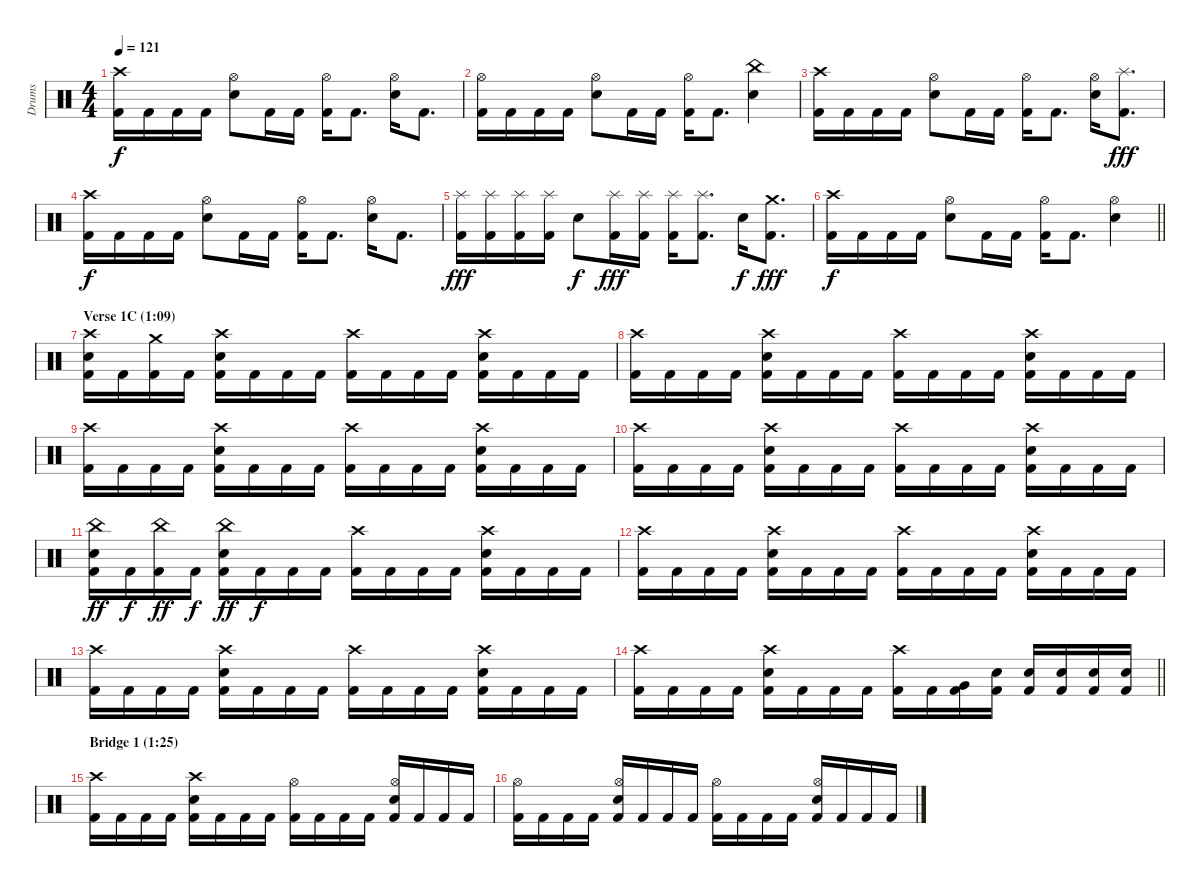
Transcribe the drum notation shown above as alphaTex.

\track ("Drums" "Drums") {instrument percussion}
\staff {score}
\articulation defaults
\ts (4 4)
\tempo 121
\clef neutral
\ks c
("Crash high (hit)" "Kick (hit) 2").16{dy f} "Kick (hit) 2".16 "Kick (hit) 2".16 "Kick (hit) 2".16 ("Hi-Hat (open)" "Electric Snare (hit)").8 "Kick (hit) 2".16 "Kick (hit) 2".16 ("Hi-Hat (open)" "Kick (hit) 2").16 "Kick (hit) 2".8{d} ("Hi-Hat (open)" "Electric Snare (hit)").16 "Kick (hit) 2".8{d} |
("Hi-Hat (open)" "Kick (hit) 2").16 "Kick (hit) 2".16 "Kick (hit) 2".16 "Kick (hit) 2".16 ("Hi-Hat (open)" "Electric Snare (hit)").8 "Kick (hit) 2".16 "Kick (hit) 2".16 ("Hi-Hat (open)" "Kick (hit) 2").16 "Kick (hit) 2".8{d} ("China (hit)" "Electric Snare (hit)").4 |
("Crash high (hit)" "Kick (hit) 2").16 "Kick (hit) 2".16 "Kick (hit) 2".16 "Kick (hit) 2".16 ("Hi-Hat (open)" "Electric Snare (hit)").8 "Kick (hit) 2".16 "Kick (hit) 2".16 ("Hi-Hat (open)" "Kick (hit) 2").16 "Kick (hit) 2".8{d} ("Hi-Hat (open)" "Electric Snare (hit)").16 ("Splash (hit)" "Kick (hit) 2").8{d dy fff} |
("Crash high (hit)" "Kick (hit) 2").16{dy f} "Kick (hit) 2".16 "Kick (hit) 2".16 "Kick (hit) 2".16 ("Hi-Hat (open)" "Electric Snare (hit)").8 "Kick (hit) 2".16 "Kick (hit) 2".16 ("Hi-Hat (open)" "Kick (hit) 2").16 "Kick (hit) 2".8{d} ("Hi-Hat (open)" "Electric Snare (hit)").16 "Kick (hit) 2".8{d} |
("Splash (hit)" "Kick (hit) 2").16{dy fff} ("Splash (hit)" "Kick (hit) 2").16 ("Splash (hit)" "Kick (hit) 2").16 ("Splash (hit)" "Kick (hit) 2").16 "Electric Snare (hit)".8{dy f} ("Splash (hit)" "Kick (hit) 2").16{dy fff} ("Splash (hit)" "Kick (hit) 2").16 ("Splash (hit)" "Kick (hit) 2").16 ("Splash (hit)" "Kick (hit) 2").8{d} "Electric Snare (hit)".16{dy f} ("Crash medium (hit)" "Kick (hit) 2").8{d dy fff} |
\barLineRight lightlight
("Crash high (hit)" "Kick (hit) 2").16{dy f} "Kick (hit) 2".16 "Kick (hit) 2".16 "Kick (hit) 2".16 ("Hi-Hat (open)" "Electric Snare (hit)").8 "Kick (hit) 2".16 "Kick (hit) 2".16 ("Hi-Hat (open)" "Kick (hit) 2").16 "Kick (hit) 2".8{d} ("Hi-Hat (open)" "Electric Snare (hit)").4 |
\section ("" "Verse 1C (1:09)")
("Crash high (hit)" "Electric Snare (hit)" "Kick (hit) 2").16 "Kick (hit) 2".16 ("Crash medium (hit)" "Kick (hit) 2").16 "Kick (hit) 2".16 ("Crash high (hit)" "Electric Snare (hit)" "Kick (hit) 2").16 "Kick (hit) 2".16 "Kick (hit) 2".16 "Kick (hit) 2".16 ("Crash high (hit)" "Kick (hit) 2").16 "Kick (hit) 2".16 "Kick (hit) 2".16 "Kick (hit) 2".16 ("Crash high (hit)" "Electric Snare (hit)" "Kick (hit) 2").16 "Kick (hit) 2".16 "Kick (hit) 2".16 "Kick (hit) 2".16 |
("Crash high (hit)" "Kick (hit) 2").16 "Kick (hit) 2".16 "Kick (hit) 2".16 "Kick (hit) 2".16 ("Crash high (hit)" "Electric Snare (hit)" "Kick (hit) 2").16 "Kick (hit) 2".16 "Kick (hit) 2".16 "Kick (hit) 2".16 ("Crash high (hit)" "Kick (hit) 2").16 "Kick (hit) 2".16 "Kick (hit) 2".16 "Kick (hit) 2".16 ("Crash high (hit)" "Electric Snare (hit)" "Kick (hit) 2").16 "Kick (hit) 2".16 "Kick (hit) 2".16 "Kick (hit) 2".16 |
("Crash high (hit)" "Kick (hit) 2").16 "Kick (hit) 2".16 "Kick (hit) 2".16 "Kick (hit) 2".16 ("Crash high (hit)" "Electric Snare (hit)" "Kick (hit) 2").16 "Kick (hit) 2".16 "Kick (hit) 2".16 "Kick (hit) 2".16 ("Crash high (hit)" "Kick (hit) 2").16 "Kick (hit) 2".16 "Kick (hit) 2".16 "Kick (hit) 2".16 ("Crash high (hit)" "Electric Snare (hit)" "Kick (hit) 2").16 "Kick (hit) 2".16 "Kick (hit) 2".16 "Kick (hit) 2".16 |
("Crash high (hit)" "Kick (hit) 2").16 "Kick (hit) 2".16 "Kick (hit) 2".16 "Kick (hit) 2".16 ("Crash high (hit)" "Electric Snare (hit)" "Kick (hit) 2").16 "Kick (hit) 2".16 "Kick (hit) 2".16 "Kick (hit) 2".16 ("Crash high (hit)" "Kick (hit) 2").16 "Kick (hit) 2".16 "Kick (hit) 2".16 "Kick (hit) 2".16 ("Crash high (hit)" "Electric Snare (hit)" "Kick (hit) 2").16 "Kick (hit) 2".16 "Kick (hit) 2".16 "Kick (hit) 2".16 |
("China (hit)" "Electric Snare (hit)" "Kick (hit) 2").16{dy ff} "Kick (hit) 2".16{dy f} ("China (hit)" "Kick (hit) 2").16{dy ff} "Kick (hit) 2".16{dy f} ("China (hit)" "Electric Snare (hit)" "Kick (hit) 2").16{dy ff} "Kick (hit) 2".16{dy f} "Kick (hit) 2".16 "Kick (hit) 2".16 ("Crash high (hit)" "Kick (hit) 2").16 "Kick (hit) 2".16 "Kick (hit) 2".16 "Kick (hit) 2".16 ("Crash high (hit)" "Electric Snare (hit)" "Kick (hit) 2").16 "Kick (hit) 2".16 "Kick (hit) 2".16 "Kick (hit) 2".16 |
("Crash high (hit)" "Kick (hit) 2").16 "Kick (hit) 2".16 "Kick (hit) 2".16 "Kick (hit) 2".16 ("Crash high (hit)" "Electric Snare (hit)" "Kick (hit) 2").16 "Kick (hit) 2".16 "Kick (hit) 2".16 "Kick (hit) 2".16 ("Crash high (hit)" "Kick (hit) 2").16 "Kick (hit) 2".16 "Kick (hit) 2".16 "Kick (hit) 2".16 ("Crash high (hit)" "Electric Snare (hit)" "Kick (hit) 2").16 "Kick (hit) 2".16 "Kick (hit) 2".16 "Kick (hit) 2".16 |
("Crash high (hit)" "Kick (hit) 2").16 "Kick (hit) 2".16 "Kick (hit) 2".16 "Kick (hit) 2".16 ("Crash high (hit)" "Electric Snare (hit)" "Kick (hit) 2").16 "Kick (hit) 2".16 "Kick (hit) 2".16 "Kick (hit) 2".16 ("Crash high (hit)" "Kick (hit) 2").16 "Kick (hit) 2".16 "Kick (hit) 2".16 "Kick (hit) 2".16 ("Crash high (hit)" "Electric Snare (hit)" "Kick (hit) 2").16 "Kick (hit) 2".16 "Kick (hit) 2".16 "Kick (hit) 2".16 |
\barLineRight lightlight
("Crash high (hit)" "Kick (hit) 2").16 "Kick (hit) 2".16 "Kick (hit) 2".16 "Kick (hit) 2".16 ("Crash high (hit)" "Electric Snare (hit)" "Kick (hit) 2").16 "Kick (hit) 2".16 "Kick (hit) 2".16 "Kick (hit) 2".16 ("Crash high (hit)" "Kick (hit) 2").16 "Kick (hit) 2".16 ("Very Low Tom (hit)" "Kick (hit) 2").16 ("Electric Snare (hit)" "Kick (hit) 2").16 ("Electric Snare (hit)" "Kick (hit) 2").16 ("Electric Snare (hit)" "Kick (hit) 2").16 ("Electric Snare (hit)" "Kick (hit) 2").16 ("Electric Snare (hit)" "Kick (hit) 2").16 |
\section ("" "Bridge 1 (1:25)")
("Crash high (hit)" "Kick (hit) 2").16 "Kick (hit) 2".16 "Kick (hit) 2".16 "Kick (hit) 2".16 ("Crash high (hit)" "Electric Snare (hit)" "Kick (hit) 2").16 "Kick (hit) 2".16 "Kick (hit) 2".16 "Kick (hit) 2".16 ("Hi-Hat (open)" "Kick (hit) 2").16 "Kick (hit) 2".16 "Kick (hit) 2".16 "Kick (hit) 2".16 ("Hi-Hat (open)" "Electric Snare (hit)" "Kick (hit) 2").16 "Kick (hit) 2".16 "Kick (hit) 2".16 "Kick (hit) 2".16 |
("Hi-Hat (open)" "Kick (hit) 2").16 "Kick (hit) 2".16 "Kick (hit) 2".16 "Kick (hit) 2".16 ("Hi-Hat (open)" "Electric Snare (hit)" "Kick (hit) 2").16 "Kick (hit) 2".16 "Kick (hit) 2".16 "Kick (hit) 2".16 ("Hi-Hat (open)" "Kick (hit) 2").16 "Kick (hit) 2".16 "Kick (hit) 2".16 "Kick (hit) 2".16 ("Hi-Hat (open)" "Electric Snare (hit)" "Kick (hit) 2").16 "Kick (hit) 2".16 "Kick (hit) 2".16 "Kick (hit) 2".16
